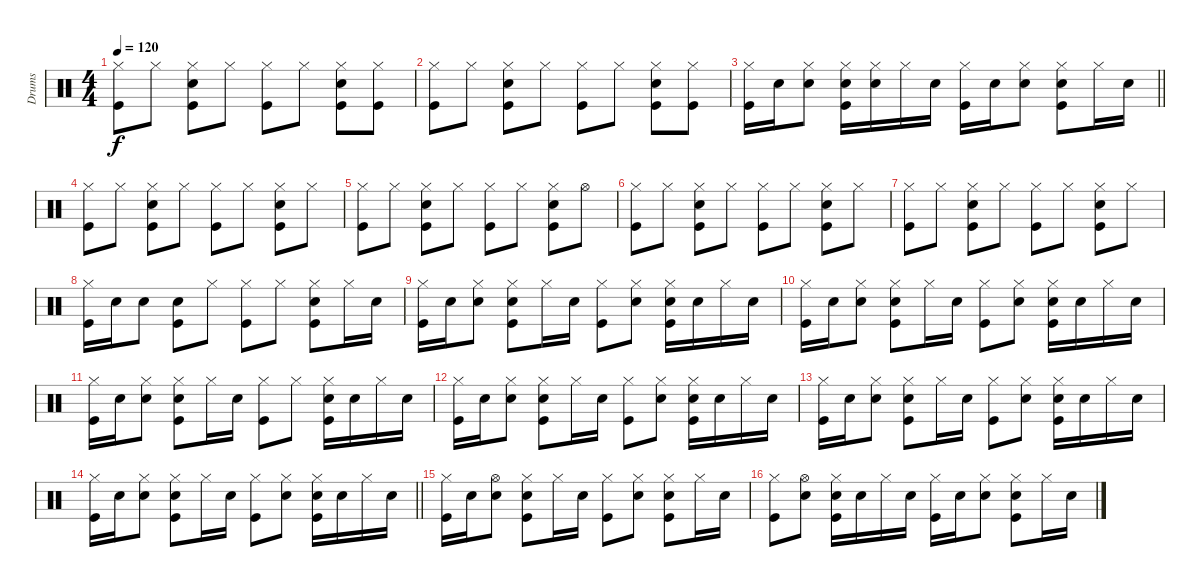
\track ("Drums" "Drums") {instrument percussion}
\staff {score}
\articulation defaults
\ts (4 4)
\tempo 120
\clef neutral
\ks c
("Hi-Hat (closed)" "Kick (hit)").8{dy f} "Hi-Hat (closed)".8 ("Hi-Hat (closed)" "Snare (hit) 2" "Kick (hit)").8 "Hi-Hat (closed)".8 ("Hi-Hat (closed)" "Kick (hit)").8 "Hi-Hat (closed)".8 ("Hi-Hat (closed)" "Snare (hit) 2" "Kick (hit)").8 ("Hi-Hat (closed)" "Kick (hit)").8 |
("Hi-Hat (closed)" "Kick (hit)").8 "Hi-Hat (closed)".8 ("Hi-Hat (closed)" "Snare (hit) 2" "Kick (hit)").8 "Hi-Hat (closed)".8 ("Hi-Hat (closed)" "Kick (hit)").8 "Hi-Hat (closed)".8 ("Hi-Hat (closed)" "Snare (hit) 2" "Kick (hit)").8 ("Hi-Hat (closed)" "Kick (hit)").8 |
\barLineRight lightlight
("Hi-Hat (closed)" "Kick (hit)").16 "Snare (hit) 2".16 ("Hi-Hat (closed)" "Snare (hit) 2").8 ("Hi-Hat (closed)" "Snare (hit) 2" "Kick (hit)").16 ("Hi-Hat (closed)" "Snare (hit) 2").16 "Hi-Hat (closed)".16 "Snare (hit) 2".16 ("Hi-Hat (closed)" "Kick (hit)").16 "Snare (hit) 2".16 ("Hi-Hat (closed)" "Snare (hit) 2").8 ("Hi-Hat (closed)" "Snare (hit) 2" "Kick (hit)").8 "Hi-Hat (closed)".16 "Snare (hit) 2".16 |
("Hi-Hat (closed)" "Kick (hit)").8 "Hi-Hat (closed)".8 ("Hi-Hat (closed)" "Snare (hit) 2" "Kick (hit)").8 "Hi-Hat (closed)".8 ("Hi-Hat (closed)" "Kick (hit)").8 "Hi-Hat (closed)".8 ("Hi-Hat (closed)" "Snare (hit) 2" "Kick (hit)").8 "Hi-Hat (closed)".8 |
("Hi-Hat (closed)" "Kick (hit)").8 "Hi-Hat (closed)".8 ("Hi-Hat (closed)" "Snare (hit) 2" "Kick (hit)").8 "Hi-Hat (closed)".8 ("Hi-Hat (closed)" "Kick (hit)").8 "Hi-Hat (closed)".8 ("Hi-Hat (closed)" "Snare (hit) 2" "Kick (hit)").8 "Hi-Hat (open)".8 |
("Hi-Hat (closed)" "Kick (hit)").8 "Hi-Hat (closed)".8 ("Hi-Hat (closed)" "Snare (hit) 2" "Kick (hit)").8 "Hi-Hat (closed)".8 ("Hi-Hat (closed)" "Kick (hit)").8 "Hi-Hat (closed)".8 ("Hi-Hat (closed)" "Snare (hit) 2" "Kick (hit)").8 "Hi-Hat (closed)".8 |
("Hi-Hat (closed)" "Kick (hit)").8 "Hi-Hat (closed)".8 ("Hi-Hat (closed)" "Snare (hit) 2" "Kick (hit)").8 "Hi-Hat (closed)".8 ("Hi-Hat (closed)" "Kick (hit)").8 "Hi-Hat (closed)".8 ("Hi-Hat (closed)" "Snare (hit) 2" "Kick (hit)").8 "Hi-Hat (closed)".8 |
("Hi-Hat (closed)" "Kick (hit)").16 "Snare (hit) 2".16 "Snare (hit) 2".8 ("Snare (hit) 2" "Kick (hit)").8 "Hi-Hat (closed)".8 ("Hi-Hat (closed)" "Kick (hit)").8 "Hi-Hat (closed)".8 ("Hi-Hat (closed)" "Snare (hit) 2" "Kick (hit)").8 "Hi-Hat (closed)".16 "Snare (hit) 2".16 |
("Hi-Hat (closed)" "Kick (hit)").16 "Snare (hit) 2".16 ("Hi-Hat (closed)" "Snare (hit) 2").8 ("Hi-Hat (closed)" "Snare (hit) 2" "Kick (hit)").8 "Hi-Hat (closed)".16 "Snare (hit) 2".16 ("Hi-Hat (closed)" "Kick (hit)").8 ("Hi-Hat (closed)" "Snare (hit) 2").8 ("Hi-Hat (closed)" "Snare (hit) 2" "Kick (hit)").16 "Snare (hit) 2".16 "Hi-Hat (closed)".16 "Snare (hit) 2".16 |
("Hi-Hat (closed)" "Kick (hit)").16 "Snare (hit) 2".16 ("Hi-Hat (closed)" "Snare (hit) 2").8 ("Hi-Hat (closed)" "Snare (hit) 2" "Kick (hit)").8 "Hi-Hat (closed)".16 "Snare (hit) 2".16 ("Hi-Hat (closed)" "Kick (hit)").8 ("Hi-Hat (closed)" "Snare (hit) 2").8 ("Hi-Hat (closed)" "Snare (hit) 2" "Kick (hit)").16 "Snare (hit) 2".16 "Hi-Hat (closed)".16 "Snare (hit) 2".16 |
("Hi-Hat (closed)" "Kick (hit)").16 "Snare (hit) 2".16 ("Hi-Hat (closed)" "Snare (hit) 2").8 ("Hi-Hat (closed)" "Snare (hit) 2" "Kick (hit)").8 "Hi-Hat (closed)".16 "Snare (hit) 2".16 ("Hi-Hat (closed)" "Kick (hit)").8 "Hi-Hat (closed)".8 ("Hi-Hat (closed)" "Snare (hit) 2" "Kick (hit)").16 "Snare (hit) 2".16 "Hi-Hat (closed)".16 "Snare (hit) 2".16 |
("Hi-Hat (closed)" "Kick (hit)").16 "Snare (hit) 2".16 ("Hi-Hat (closed)" "Snare (hit) 2").8 ("Hi-Hat (closed)" "Snare (hit) 2" "Kick (hit)").8 "Hi-Hat (closed)".16 "Snare (hit) 2".16 ("Hi-Hat (closed)" "Kick (hit)").8 ("Hi-Hat (closed)" "Snare (hit) 2").8 ("Hi-Hat (closed)" "Snare (hit) 2" "Kick (hit)").16 "Snare (hit) 2".16 "Hi-Hat (closed)".16 "Snare (hit) 2".16 |
("Hi-Hat (closed)" "Kick (hit)").16 "Snare (hit) 2".16 ("Hi-Hat (closed)" "Snare (hit) 2").8 ("Hi-Hat (closed)" "Snare (hit) 2" "Kick (hit)").8 "Hi-Hat (closed)".16 "Snare (hit) 2".16 ("Hi-Hat (closed)" "Kick (hit)").8 ("Hi-Hat (closed)" "Snare (hit) 2").8 ("Hi-Hat (closed)" "Snare (hit) 2" "Kick (hit)").16 "Snare (hit) 2".16 "Hi-Hat (closed)".16 "Snare (hit) 2".16 |
\barLineRight lightlight
("Hi-Hat (closed)" "Kick (hit)").16 "Snare (hit) 2".16 ("Hi-Hat (closed)" "Snare (hit) 2").8 ("Hi-Hat (closed)" "Snare (hit) 2" "Kick (hit)").8 "Hi-Hat (closed)".16 "Snare (hit) 2".16 ("Hi-Hat (closed)" "Kick (hit)").8 ("Hi-Hat (closed)" "Snare (hit) 2").8 ("Hi-Hat (closed)" "Snare (hit) 2" "Kick (hit)").16 "Snare (hit) 2".16 "Hi-Hat (closed)".16 "Snare (hit) 2".16 |
("Hi-Hat (closed)" "Kick (hit)").16 "Snare (hit) 2".16 ("Hi-Hat (open)" "Snare (hit) 2").8 ("Hi-Hat (closed)" "Snare (hit) 2" "Kick (hit)").8 "Hi-Hat (closed)".16 "Snare (hit) 2".16 ("Hi-Hat (closed)" "Kick (hit)").8 ("Hi-Hat (closed)" "Snare (hit) 2").8 ("Hi-Hat (closed)" "Snare (hit) 2" "Kick (hit)").8 "Hi-Hat (closed)".16 "Snare (hit) 2".16 |
("Hi-Hat (closed)" "Kick (hit)").8 ("Hi-Hat (open)" "Snare (hit) 2").8 ("Hi-Hat (closed)" "Snare (hit) 2" "Kick (hit)").16 "Snare (hit) 2".16 "Hi-Hat (closed)".16 "Snare (hit) 2".16 ("Hi-Hat (closed)" "Kick (hit)").16 "Snare (hit) 2".16 ("Hi-Hat (closed)" "Snare (hit) 2").8 ("Hi-Hat (closed)" "Snare (hit) 2" "Kick (hit)").8 "Hi-Hat (closed)".16 "Snare (hit) 2".16
